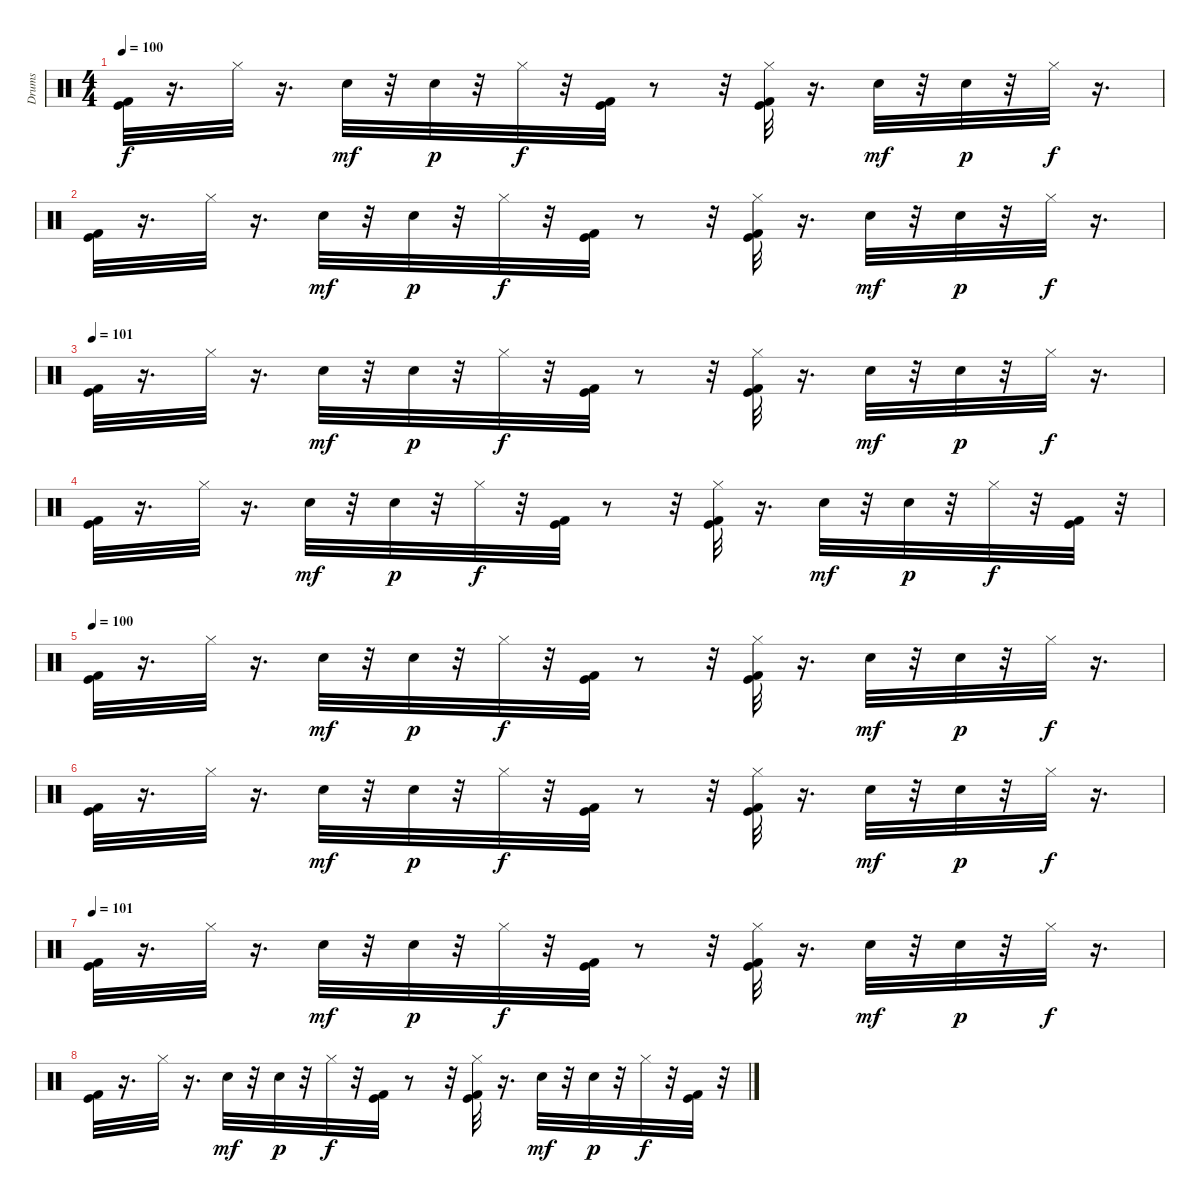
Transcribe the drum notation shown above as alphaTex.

\track ("Drums" "Drums") {instrument percussion}
\staff {score}
\articulation defaults
\ts (4 4)
\tempo 100
\clef neutral
\ks c
("Kick (hit)" "Kick (hit) 2").32{dy f} r.16{d} "Hi-Hat (closed)".32 r.16{d} "Hand Clap (hit)".32{dy mf} r.32 "Hand Clap (hit)".32{dy p} r.32 "Hi-Hat (closed)".32{dy f} r.32 ("Kick (hit)" "Kick (hit) 2").32 r.8 r.32 ("Kick (hit)" "Kick (hit) 2" "Hi-Hat (closed)").32 r.16{d} "Hand Clap (hit)".32{dy mf} r.32 "Hand Clap (hit)".32{dy p} r.32 "Hi-Hat (closed)".32{dy f} r.16{d} |
("Kick (hit)" "Kick (hit) 2").32 r.16{d} "Hi-Hat (closed)".32 r.16{d} "Hand Clap (hit)".32{dy mf} r.32 "Hand Clap (hit)".32{dy p} r.32 "Hi-Hat (closed)".32{dy f} r.32 ("Kick (hit)" "Kick (hit) 2").32 r.8 r.32 ("Kick (hit)" "Kick (hit) 2" "Hi-Hat (closed)").32 r.16{d} "Hand Clap (hit)".32{dy mf} r.32 "Hand Clap (hit)".32{dy p} r.32 "Hi-Hat (closed)".32{dy f} r.16{d} |
\tempo 101
("Kick (hit)" "Kick (hit) 2").32 r.16{d} "Hi-Hat (closed)".32 r.16{d} "Hand Clap (hit)".32{dy mf} r.32 "Hand Clap (hit)".32{dy p} r.32 "Hi-Hat (closed)".32{dy f} r.32 ("Kick (hit)" "Kick (hit) 2").32 r.8 r.32 ("Kick (hit)" "Kick (hit) 2" "Hi-Hat (closed)").32 r.16{d} "Hand Clap (hit)".32{dy mf} r.32 "Hand Clap (hit)".32{dy p} r.32 "Hi-Hat (closed)".32{dy f} r.16{d} |
("Kick (hit)" "Kick (hit) 2").32 r.16{d} "Hi-Hat (closed)".32 r.16{d} "Hand Clap (hit)".32{dy mf} r.32 "Hand Clap (hit)".32{dy p} r.32 "Hi-Hat (closed)".32{dy f} r.32 ("Kick (hit)" "Kick (hit) 2").32 r.8 r.32 ("Kick (hit)" "Kick (hit) 2" "Hi-Hat (closed)").32 r.16{d} "Hand Clap (hit)".32{dy mf} r.32 "Hand Clap (hit)".32{dy p} r.32 "Hi-Hat (closed)".32{dy f} r.32 ("Kick (hit)" "Kick (hit) 2").32 r.32 |
\tempo 100
("Kick (hit)" "Kick (hit) 2").32 r.16{d} "Hi-Hat (closed)".32 r.16{d} "Hand Clap (hit)".32{dy mf} r.32 "Hand Clap (hit)".32{dy p} r.32 "Hi-Hat (closed)".32{dy f} r.32 ("Kick (hit)" "Kick (hit) 2").32 r.8 r.32 ("Kick (hit)" "Kick (hit) 2" "Hi-Hat (closed)").32 r.16{d} "Hand Clap (hit)".32{dy mf} r.32 "Hand Clap (hit)".32{dy p} r.32 "Hi-Hat (closed)".32{dy f} r.16{d} |
("Kick (hit)" "Kick (hit) 2").32 r.16{d} "Hi-Hat (closed)".32 r.16{d} "Hand Clap (hit)".32{dy mf} r.32 "Hand Clap (hit)".32{dy p} r.32 "Hi-Hat (closed)".32{dy f} r.32 ("Kick (hit)" "Kick (hit) 2").32 r.8 r.32 ("Kick (hit)" "Kick (hit) 2" "Hi-Hat (closed)").32 r.16{d} "Hand Clap (hit)".32{dy mf} r.32 "Hand Clap (hit)".32{dy p} r.32 "Hi-Hat (closed)".32{dy f} r.16{d} |
\tempo 101
("Kick (hit)" "Kick (hit) 2").32 r.16{d} "Hi-Hat (closed)".32 r.16{d} "Hand Clap (hit)".32{dy mf} r.32 "Hand Clap (hit)".32{dy p} r.32 "Hi-Hat (closed)".32{dy f} r.32 ("Kick (hit)" "Kick (hit) 2").32 r.8 r.32 ("Kick (hit)" "Kick (hit) 2" "Hi-Hat (closed)").32 r.16{d} "Hand Clap (hit)".32{dy mf} r.32 "Hand Clap (hit)".32{dy p} r.32 "Hi-Hat (closed)".32{dy f} r.16{d} |
("Kick (hit)" "Kick (hit) 2").32 r.16{d} "Hi-Hat (closed)".32 r.16{d} "Hand Clap (hit)".32{dy mf} r.32 "Hand Clap (hit)".32{dy p} r.32 "Hi-Hat (closed)".32{dy f} r.32 ("Kick (hit)" "Kick (hit) 2").32 r.8 r.32 ("Kick (hit)" "Kick (hit) 2" "Hi-Hat (closed)").32 r.16{d} "Hand Clap (hit)".32{dy mf} r.32 "Hand Clap (hit)".32{dy p} r.32 "Hi-Hat (closed)".32{dy f} r.32 ("Kick (hit)" "Kick (hit) 2").32 r.32
